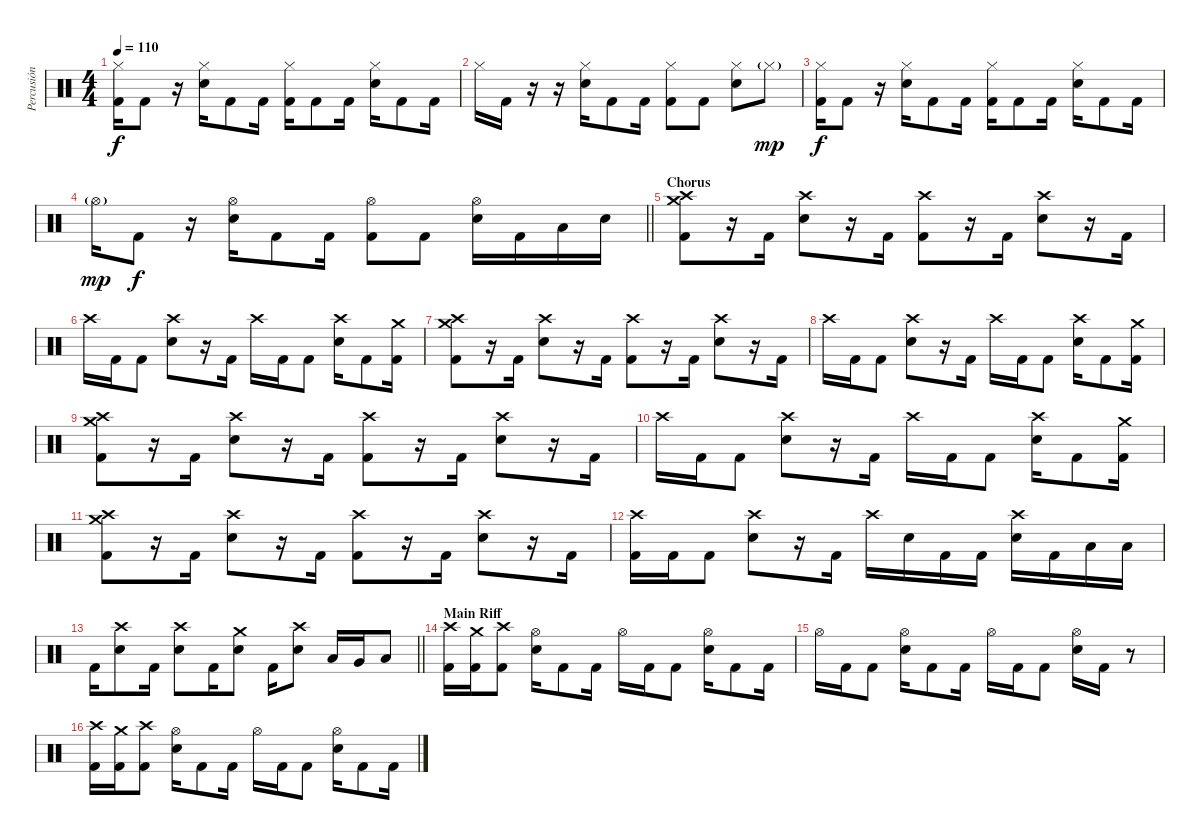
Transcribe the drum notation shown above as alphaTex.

\track ("Percusión" "Percusión") {instrument percussion}
\staff {score}
\articulation defaults
\ts (4 4)
\tempo 110
\clef neutral
\ks c
("Hi-Hat (closed)" "Kick (hit) 2").16{dy f} "Kick (hit) 2".8 r.16 ("Hi-Hat (closed)" "Snare (hit) 2").16 "Kick (hit) 2".8 "Kick (hit) 2".16 ("Hi-Hat (closed)" "Kick (hit) 2").16 "Kick (hit) 2".8 "Kick (hit) 2".16 ("Hi-Hat (closed)" "Snare (hit) 2").16 "Kick (hit) 2".8 "Kick (hit) 2".16 |
"Hi-Hat (closed)".16 "Kick (hit) 2".16 r.16 r.16 ("Hi-Hat (closed)" "Snare (hit) 2").16 "Kick (hit) 2".8 "Kick (hit) 2".16 ("Hi-Hat (closed)" "Kick (hit) 2").8 "Kick (hit) 2".8 ("Hi-Hat (closed)" "Snare (hit) 2").8 "Hi-Hat (closed)"{g}.8{dy mp} |
("Hi-Hat (closed)" "Kick (hit) 2").16{dy f} "Kick (hit) 2".8 r.16 ("Hi-Hat (closed)" "Snare (hit) 2").16 "Kick (hit) 2".8 "Kick (hit) 2".16 ("Hi-Hat (closed)" "Kick (hit) 2").16 "Kick (hit) 2".8 "Kick (hit) 2".16 ("Hi-Hat (closed)" "Snare (hit) 2").16 "Kick (hit) 2".8 "Kick (hit) 2".16 |
\barLineRight lightlight "Hi-Hat (open)"{g}.16{dy mp} "Kick (hit) 2".8{dy f}
r.16 ("Hi-Hat (open)" "Snare (hit) 2").16 "Kick (hit) 2".8 "Kick (hit) 2".16 ("Hi-Hat (open)" "Kick (hit) 2").8 "Kick (hit) 2".8 ("Hi-Hat (open)" "Snare (hit) 2").16 "Kick (hit) 2".16 "Low Tom (hit)".16 "Snare (hit) 2".16 |
\section ("" "Chorus")
("Crash high (hit)" "Crash medium (hit)" "Kick (hit) 2").8 r.16 "Kick (hit) 2".16 ("Crash high (hit)" "Snare (hit) 2").8 r.16 "Kick (hit) 2".16 ("Crash high (hit)" "Kick (hit) 2").8 r.16 "Kick (hit) 2".16 ("Crash high (hit)" "Snare (hit) 2").8 r.16 "Kick (hit) 2".16 |
"Crash high (hit)".16 "Kick (hit) 2".16 "Kick (hit) 2".8 ("Crash high (hit)" "Snare (hit) 2").8 r.16 "Kick (hit) 2".16 "Crash high (hit)".16 "Kick (hit) 2".16 "Kick (hit) 2".8 ("Crash high (hit)" "Snare (hit) 2").16 "Kick (hit) 2".8 ("Crash medium (hit)" "Kick (hit) 2").16 |
("Crash high (hit)" "Crash medium (hit)" "Kick (hit) 2").8 r.16 "Kick (hit) 2".16 ("Crash high (hit)" "Snare (hit) 2").8 r.16 "Kick (hit) 2".16 ("Crash high (hit)" "Kick (hit) 2").8 r.16 "Kick (hit) 2".16 ("Crash high (hit)" "Snare (hit) 2").8 r.16 "Kick (hit) 2".16 |
"Crash high (hit)".16 "Kick (hit) 2".16 "Kick (hit) 2".8 ("Crash high (hit)" "Snare (hit) 2").8 r.16 "Kick (hit) 2".16 "Crash high (hit)".16 "Kick (hit) 2".16 "Kick (hit) 2".8 ("Crash high (hit)" "Snare (hit) 2").16 "Kick (hit) 2".8 ("Crash medium (hit)" "Kick (hit) 2").16 |
("Crash high (hit)" "Crash medium (hit)" "Kick (hit) 2").8 r.16 "Kick (hit) 2".16 ("Crash high (hit)" "Snare (hit) 2").8 r.16 "Kick (hit) 2".16 ("Crash high (hit)" "Kick (hit) 2").8 r.16 "Kick (hit) 2".16 ("Crash high (hit)" "Snare (hit) 2").8 r.16 "Kick (hit) 2".16 |
"Crash high (hit)".16 "Kick (hit) 2".16 "Kick (hit) 2".8 ("Crash high (hit)" "Snare (hit) 2").8 r.16 "Kick (hit) 2".16 "Crash high (hit)".16 "Kick (hit) 2".16 "Kick (hit) 2".8 ("Crash high (hit)" "Snare (hit) 2").16 "Kick (hit) 2".8 ("Crash medium (hit)" "Kick (hit) 2").16 |
("Crash high (hit)" "Crash medium (hit)" "Kick (hit) 2").8 r.16 "Kick (hit) 2".16 ("Crash high (hit)" "Snare (hit) 2").8 r.16 "Kick (hit) 2".16 ("Crash high (hit)" "Kick (hit) 2").8 r.16 "Kick (hit) 2".16 ("Crash high (hit)" "Snare (hit) 2").8 r.16 "Kick (hit) 2".16 |
("Crash high (hit)" "Kick (hit) 2").16 "Kick (hit) 2".16 "Kick (hit) 2".8 ("Crash high (hit)" "Snare (hit) 2").8 r.16 "Kick (hit) 2".16 "Crash high (hit)".16 "Snare (hit) 2".16 "Kick (hit) 2".16 "Kick (hit) 2".16 ("Crash high (hit)" "Snare (hit) 2").16 "Kick (hit) 2".16 "Low Tom (hit)".16 "Low Floor Tom (hit)".16 |
\barLineRight lightlight "Kick (hit) 2".16
("Crash high (hit)" "Snare (hit) 2").8 "Kick (hit) 2".16 ("Crash high (hit)" "Snare (hit) 2").8 "Kick (hit) 2".16 ("Crash medium (hit)" "Snare (hit) 2").8 "Kick (hit) 2".16 ("Crash high (hit)" "Snare (hit) 2").8 "Low Tom (hit)".16 "Very Low Tom (hit)".16 "Low Floor Tom (hit)".8 |
\section ("" "Main Riff")
("Crash high (hit)" "Kick (hit) 2").16 ("Crash medium (hit)" "Kick (hit) 2").16 ("Crash high (hit)" "Kick (hit) 2").8 ("Hi-Hat (open)" "Snare (hit) 2").16 "Kick (hit) 2".8 "Kick (hit) 2".16 "Hi-Hat (open)".16 "Kick (hit) 2".16 "Kick (hit) 2".8 ("Hi-Hat (open)" "Snare (hit) 2").16 "Kick (hit) 2".8 "Kick (hit) 2".16 |
"Hi-Hat (open)".16 "Kick (hit) 2".16 "Kick (hit) 2".8 ("Hi-Hat (open)" "Snare (hit) 2").16 "Kick (hit) 2".8 "Kick (hit) 2".16 "Hi-Hat (open)".16 "Kick (hit) 2".16 "Kick (hit) 2".8 ("Hi-Hat (open)" "Snare (hit) 2").16 "Kick (hit) 2".16 r.8 |
("Crash high (hit)" "Kick (hit) 2").16 ("Crash medium (hit)" "Kick (hit) 2").16 ("Crash high (hit)" "Kick (hit) 2").8 ("Hi-Hat (open)" "Snare (hit) 2").16 "Kick (hit) 2".8 "Kick (hit) 2".16 "Hi-Hat (open)".16 "Kick (hit) 2".16 "Kick (hit) 2".8 ("Hi-Hat (open)" "Snare (hit) 2").16 "Kick (hit) 2".8 "Kick (hit) 2".16
